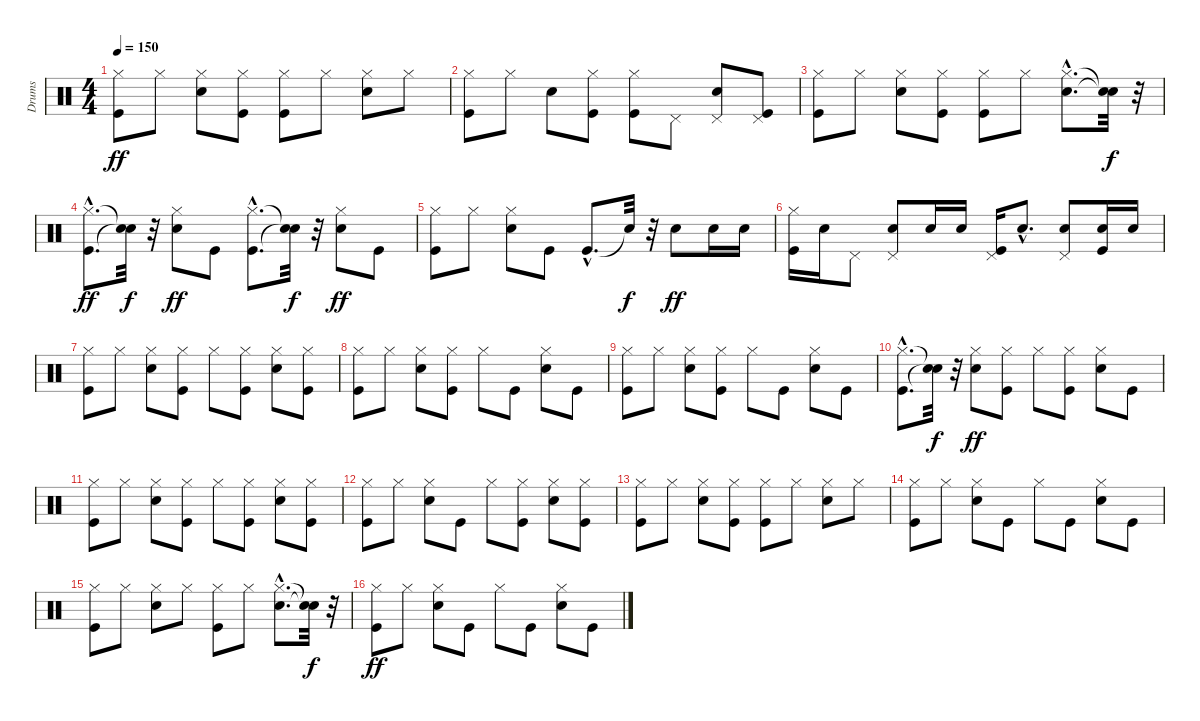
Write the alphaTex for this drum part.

\track ("Drums" "Drums") {instrument percussion}
\staff {score}
\articulation defaults
\ts (4 4)
\tempo 150
\clef neutral
\ks c
("Kick (hit)" "Hi-Hat (closed)").8{dy ff} "Hi-Hat (closed)".8 ("Snare (hit) 2" "Hi-Hat (closed)").8 ("Kick (hit)" "Hi-Hat (closed)").8 ("Kick (hit)" "Hi-Hat (closed)").8 "Hi-Hat (closed)".8 ("Snare (hit) 2" "Hi-Hat (closed)").8 "Hi-Hat (closed)".8 |
("Kick (hit)" "Hi-Hat (closed)").8 "Hi-Hat (closed)".8 "Snare (hit) 2".8 ("Kick (hit)" "Hi-Hat (closed)").8 ("Kick (hit)" "Hi-Hat (closed)").8 "Pedal Hi-Hat (hit)".8 ("Snare (hit) 2" "Pedal Hi-Hat (hit)").8 ("Kick (hit)" "Pedal Hi-Hat (hit)").8 |
("Kick (hit)" "Hi-Hat (closed)").8 "Hi-Hat (closed)".8 ("Snare (hit) 2" "Hi-Hat (closed)").8 ("Kick (hit)" "Hi-Hat (closed)").8 ("Kick (hit)" "Hi-Hat (closed)").8 "Hi-Hat (closed)".8 ("Snare (hit) 2"{hac} "Hi-Hat (closed)"{hac}).8{d} ("Snare (hit)"{t} "Snare (hit)"{t}).32{dy f} r.32 |
("Kick (hit)"{hac} "Hi-Hat (closed)"{hac}).8{d dy ff} ("Snare (hit)"{t} "Snare (hit)"{t}).32{dy f} r.32 ("Snare (hit) 2" "Hi-Hat (closed)").8{dy ff} "Kick (hit)".8 ("Kick (hit)"{hac} "Hi-Hat (closed)"{hac}).8{d} ("Snare (hit)"{t} "Snare (hit)"{t}).32{dy f} r.32 ("Snare (hit) 2" "Hi-Hat (closed)").8{dy ff} "Kick (hit)".8 |
("Kick (hit)" "Hi-Hat (closed)").8 "Hi-Hat (closed)".8 ("Snare (hit) 2" "Hi-Hat (closed)").8 "Kick (hit)".8 "Kick (hit)"{hac}.8{d} "Snare (hit)"{t}.32{dy f} r.32 "Snare (hit) 2".8{dy ff} "Snare (hit) 2".16 "Snare (hit) 2".16 |
("Kick (hit)" "Hi-Hat (closed)").16 "Snare (hit) 2".16 "Pedal Hi-Hat (hit)".8 ("Snare (hit) 2" "Pedal Hi-Hat (hit)").8 "Snare (hit) 2".16 "Snare (hit) 2".16 ("Kick (hit)" "Pedal Hi-Hat (hit)").16 "Snare (hit) 2"{hac}.8{d} ("Snare (hit) 2" "Pedal Hi-Hat (hit)").8 ("Kick (hit)" "Snare (hit) 2").16 "Snare (hit) 2".16 |
("Kick (hit)" "Hi-Hat (closed)").8 "Hi-Hat (closed)".8 ("Snare (hit) 2" "Hi-Hat (closed)").8 ("Kick (hit)" "Hi-Hat (closed)").8 "Hi-Hat (closed)".8 ("Kick (hit)" "Hi-Hat (closed)").8 ("Snare (hit) 2" "Hi-Hat (closed)").8 ("Kick (hit)" "Hi-Hat (closed)").8 |
("Kick (hit)" "Hi-Hat (closed)").8 "Hi-Hat (closed)".8 ("Snare (hit) 2" "Hi-Hat (closed)").8 ("Kick (hit)" "Hi-Hat (closed)").8 "Hi-Hat (closed)".8 "Kick (hit)".8 ("Snare (hit) 2" "Hi-Hat (closed)").8 "Kick (hit)".8 |
("Kick (hit)" "Hi-Hat (closed)").8 "Hi-Hat (closed)".8 ("Snare (hit) 2" "Hi-Hat (closed)").8 ("Kick (hit)" "Hi-Hat (closed)").8 "Hi-Hat (closed)".8 "Kick (hit)".8 ("Snare (hit) 2" "Hi-Hat (closed)").8 "Kick (hit)".8 |
("Kick (hit)"{hac} "Hi-Hat (closed)"{hac}).8{d} ("Snare (hit)"{t} "Snare (hit)"{t}).32{dy f} r.32 ("Snare (hit) 2" "Hi-Hat (closed)").8{dy ff} ("Kick (hit)" "Hi-Hat (closed)").8 "Hi-Hat (closed)".8 ("Kick (hit)" "Hi-Hat (closed)").8 ("Snare (hit) 2" "Hi-Hat (closed)").8 "Kick (hit)".8 |
("Kick (hit)" "Hi-Hat (closed)").8 "Hi-Hat (closed)".8 ("Snare (hit) 2" "Hi-Hat (closed)").8 ("Kick (hit)" "Hi-Hat (closed)").8 "Hi-Hat (closed)".8 ("Kick (hit)" "Hi-Hat (closed)").8 ("Snare (hit) 2" "Hi-Hat (closed)").8 ("Kick (hit)" "Hi-Hat (closed)").8 |
("Kick (hit)" "Hi-Hat (closed)").8 "Hi-Hat (closed)".8 ("Snare (hit) 2" "Hi-Hat (closed)").8 "Kick (hit)".8 "Hi-Hat (closed)".8 ("Kick (hit)" "Hi-Hat (closed)").8 ("Snare (hit) 2" "Hi-Hat (closed)").8 ("Kick (hit)" "Hi-Hat (closed)").8 |
("Kick (hit)" "Hi-Hat (closed)").8 "Hi-Hat (closed)".8 ("Snare (hit) 2" "Hi-Hat (closed)").8 ("Kick (hit)" "Hi-Hat (closed)").8 ("Kick (hit)" "Hi-Hat (closed)").8 "Hi-Hat (closed)".8 ("Snare (hit) 2" "Hi-Hat (closed)").8 "Hi-Hat (closed)".8 |
("Kick (hit)" "Hi-Hat (closed)").8 "Hi-Hat (closed)".8 ("Snare (hit) 2" "Hi-Hat (closed)").8 "Kick (hit)".8 "Hi-Hat (closed)".8 "Kick (hit)".8 ("Snare (hit) 2" "Hi-Hat (closed)").8 "Kick (hit)".8 |
("Kick (hit)" "Hi-Hat (closed)").8 "Hi-Hat (closed)".8 ("Snare (hit) 2" "Hi-Hat (closed)").8 "Hi-Hat (closed)".8 ("Kick (hit)" "Hi-Hat (closed)").8 "Hi-Hat (closed)".8 ("Snare (hit) 2"{hac} "Hi-Hat (closed)"{hac}).8{d} ("Snare (hit)"{t} "Snare (hit)"{t}).32{dy f} r.32 |
("Kick (hit)" "Hi-Hat (closed)").8{dy ff} "Hi-Hat (closed)".8 ("Snare (hit) 2" "Hi-Hat (closed)").8 "Kick (hit)".8 "Hi-Hat (closed)".8 "Kick (hit)".8 ("Snare (hit) 2" "Hi-Hat (closed)").8 "Kick (hit)".8
